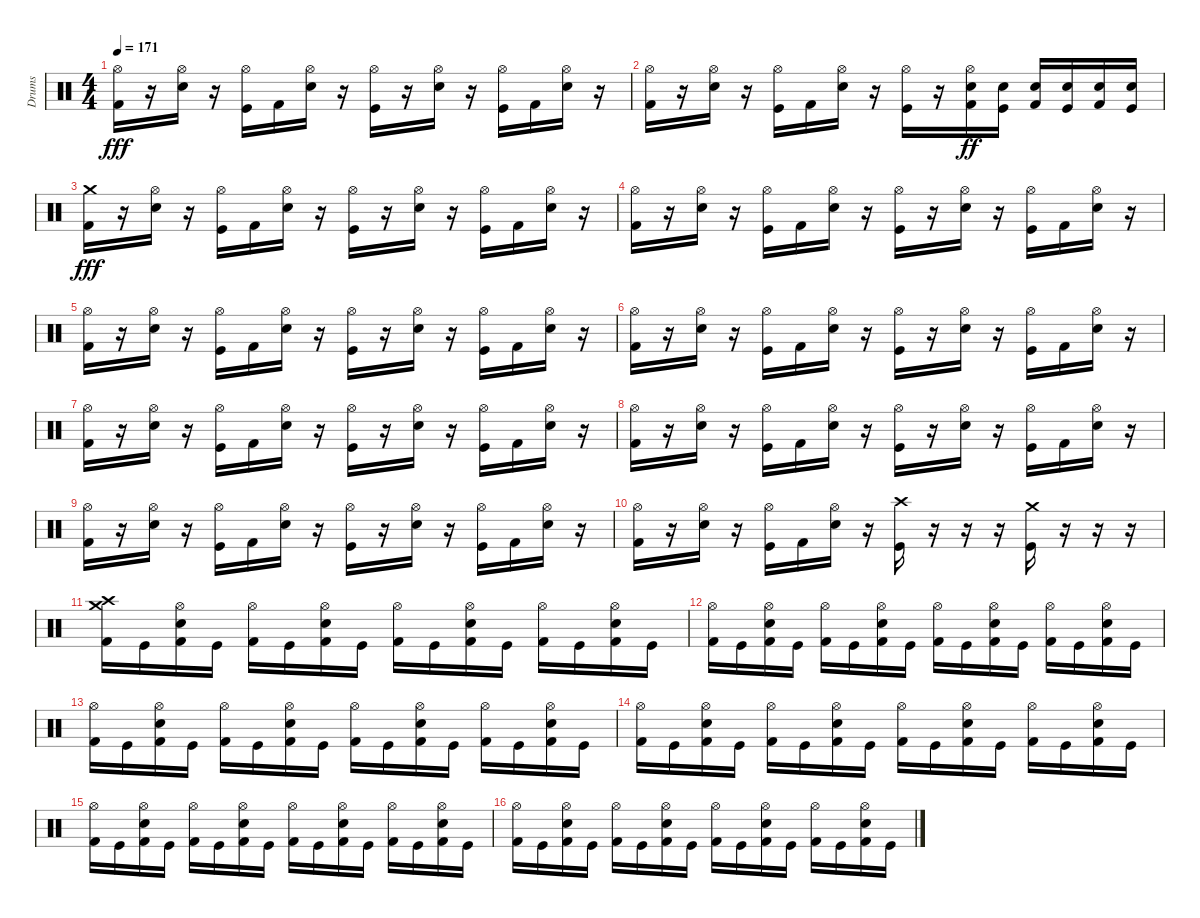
\track ("Drums" "Drums") {instrument percussion}
\staff {score}
\articulation defaults
\ts (4 4)
\tempo 171
\clef neutral
\ks c
("Hi-Hat (open)" "Kick (hit) 2").16{dy fff} r.16 ("Hi-Hat (open)" "Electric Snare (hit)").16 r.16 ("Hi-Hat (open)" "Kick (hit)").16 "Kick (hit) 2".16 ("Hi-Hat (open)" "Electric Snare (hit)").16 r.16 ("Hi-Hat (open)" "Kick (hit)").16 r.16 ("Hi-Hat (open)" "Electric Snare (hit)").16 r.16 ("Hi-Hat (open)" "Kick (hit)").16 "Kick (hit) 2".16 ("Hi-Hat (open)" "Electric Snare (hit)").16 r.16 |
("Hi-Hat (open)" "Kick (hit) 2").16 r.16 ("Hi-Hat (open)" "Electric Snare (hit)").16 r.16 ("Hi-Hat (open)" "Kick (hit)").16 "Kick (hit) 2".16 ("Hi-Hat (open)" "Electric Snare (hit)").16 r.16 ("Hi-Hat (open)" "Kick (hit)").16 r.16 ("Hi-Hat (open)" "Electric Snare (hit)" "Kick (hit) 2").16{dy ff} ("Electric Snare (hit)" "Kick (hit)").16 ("Electric Snare (hit)" "Kick (hit) 2").16 ("Electric Snare (hit)" "Kick (hit)").16 ("Electric Snare (hit)" "Kick (hit) 2").16 ("Electric Snare (hit)" "Kick (hit)").16 |
("Crash medium (hit)" "Kick (hit) 2").16{dy fff} r.16 ("Hi-Hat (open)" "Electric Snare (hit)").16 r.16 ("Hi-Hat (open)" "Kick (hit)").16 "Kick (hit) 2".16 ("Hi-Hat (open)" "Electric Snare (hit)").16 r.16 ("Hi-Hat (open)" "Kick (hit)").16 r.16 ("Hi-Hat (open)" "Electric Snare (hit)").16 r.16 ("Hi-Hat (open)" "Kick (hit)").16 "Kick (hit) 2".16 ("Hi-Hat (open)" "Electric Snare (hit)").16 r.16 |
("Hi-Hat (open)" "Kick (hit) 2").16 r.16 ("Hi-Hat (open)" "Electric Snare (hit)").16 r.16 ("Hi-Hat (open)" "Kick (hit)").16 "Kick (hit) 2".16 ("Hi-Hat (open)" "Electric Snare (hit)").16 r.16 ("Hi-Hat (open)" "Kick (hit)").16 r.16 ("Hi-Hat (open)" "Electric Snare (hit)").16 r.16 ("Hi-Hat (open)" "Kick (hit)").16 "Kick (hit) 2".16 ("Hi-Hat (open)" "Electric Snare (hit)").16 r.16 |
("Hi-Hat (open)" "Kick (hit) 2").16 r.16 ("Hi-Hat (open)" "Electric Snare (hit)").16 r.16 ("Hi-Hat (open)" "Kick (hit)").16 "Kick (hit) 2".16 ("Hi-Hat (open)" "Electric Snare (hit)").16 r.16 ("Hi-Hat (open)" "Kick (hit)").16 r.16 ("Hi-Hat (open)" "Electric Snare (hit)").16 r.16 ("Hi-Hat (open)" "Kick (hit)").16 "Kick (hit) 2".16 ("Hi-Hat (open)" "Electric Snare (hit)").16 r.16 |
("Hi-Hat (open)" "Kick (hit) 2").16 r.16 ("Hi-Hat (open)" "Electric Snare (hit)").16 r.16 ("Hi-Hat (open)" "Kick (hit)").16 "Kick (hit) 2".16 ("Hi-Hat (open)" "Electric Snare (hit)").16 r.16 ("Hi-Hat (open)" "Kick (hit)").16 r.16 ("Hi-Hat (open)" "Electric Snare (hit)").16 r.16 ("Hi-Hat (open)" "Kick (hit)").16 "Kick (hit) 2".16 ("Hi-Hat (open)" "Electric Snare (hit)").16 r.16 |
("Hi-Hat (open)" "Kick (hit) 2").16 r.16 ("Hi-Hat (open)" "Electric Snare (hit)").16 r.16 ("Hi-Hat (open)" "Kick (hit)").16 "Kick (hit) 2".16 ("Hi-Hat (open)" "Electric Snare (hit)").16 r.16 ("Hi-Hat (open)" "Kick (hit)").16 r.16 ("Hi-Hat (open)" "Electric Snare (hit)").16 r.16 ("Hi-Hat (open)" "Kick (hit)").16 "Kick (hit) 2".16 ("Hi-Hat (open)" "Electric Snare (hit)").16 r.16 |
("Hi-Hat (open)" "Kick (hit) 2").16 r.16 ("Hi-Hat (open)" "Electric Snare (hit)").16 r.16 ("Hi-Hat (open)" "Kick (hit)").16 "Kick (hit) 2".16 ("Hi-Hat (open)" "Electric Snare (hit)").16 r.16 ("Hi-Hat (open)" "Kick (hit)").16 r.16 ("Hi-Hat (open)" "Electric Snare (hit)").16 r.16 ("Hi-Hat (open)" "Kick (hit)").16 "Kick (hit) 2".16 ("Hi-Hat (open)" "Electric Snare (hit)").16 r.16 |
("Hi-Hat (open)" "Kick (hit) 2").16 r.16 ("Hi-Hat (open)" "Electric Snare (hit)").16 r.16 ("Hi-Hat (open)" "Kick (hit)").16 "Kick (hit) 2".16 ("Hi-Hat (open)" "Electric Snare (hit)").16 r.16 ("Hi-Hat (open)" "Kick (hit)").16 r.16 ("Hi-Hat (open)" "Electric Snare (hit)").16 r.16 ("Hi-Hat (open)" "Kick (hit)").16 "Kick (hit) 2".16 ("Hi-Hat (open)" "Electric Snare (hit)").16 r.16 |
("Hi-Hat (open)" "Kick (hit) 2").16 r.16 ("Hi-Hat (open)" "Electric Snare (hit)").16 r.16 ("Hi-Hat (open)" "Kick (hit)").16 "Kick (hit) 2".16 ("Hi-Hat (open)" "Electric Snare (hit)").16 r.16 ("Crash high (hit)" "Kick (hit)").16 r.16 r.16 r.16 ("Crash medium (hit)" "Kick (hit)").16 r.16 r.16 r.16 |
("Crash high (hit)" "Crash medium (hit)" "Kick (hit) 2").16 "Kick (hit)".16 ("Hi-Hat (open)" "Electric Snare (hit)" "Kick (hit) 2").16 "Kick (hit)".16 ("Hi-Hat (open)" "Kick (hit) 2").16 "Kick (hit)".16 ("Hi-Hat (open)" "Electric Snare (hit)" "Kick (hit) 2").16 "Kick (hit)".16 ("Hi-Hat (open)" "Kick (hit) 2").16 "Kick (hit)".16 ("Hi-Hat (open)" "Electric Snare (hit)" "Kick (hit) 2").16 "Kick (hit)".16 ("Hi-Hat (open)" "Kick (hit) 2").16 "Kick (hit)".16 ("Hi-Hat (open)" "Electric Snare (hit)" "Kick (hit) 2").16 "Kick (hit)".16 |
("Hi-Hat (open)" "Kick (hit) 2").16 "Kick (hit)".16 ("Hi-Hat (open)" "Electric Snare (hit)" "Kick (hit) 2").16 "Kick (hit)".16 ("Hi-Hat (open)" "Kick (hit) 2").16 "Kick (hit)".16 ("Hi-Hat (open)" "Electric Snare (hit)" "Kick (hit) 2").16 "Kick (hit)".16 ("Hi-Hat (open)" "Kick (hit) 2").16 "Kick (hit)".16 ("Hi-Hat (open)" "Electric Snare (hit)" "Kick (hit) 2").16 "Kick (hit)".16 ("Hi-Hat (open)" "Kick (hit) 2").16 "Kick (hit)".16 ("Hi-Hat (open)" "Electric Snare (hit)" "Kick (hit) 2").16 "Kick (hit)".16 |
("Hi-Hat (open)" "Kick (hit) 2").16 "Kick (hit)".16 ("Hi-Hat (open)" "Electric Snare (hit)" "Kick (hit) 2").16 "Kick (hit)".16 ("Hi-Hat (open)" "Kick (hit) 2").16 "Kick (hit)".16 ("Hi-Hat (open)" "Electric Snare (hit)" "Kick (hit) 2").16 "Kick (hit)".16 ("Hi-Hat (open)" "Kick (hit) 2").16 "Kick (hit)".16 ("Hi-Hat (open)" "Electric Snare (hit)" "Kick (hit) 2").16 "Kick (hit)".16 ("Hi-Hat (open)" "Kick (hit) 2").16 "Kick (hit)".16 ("Hi-Hat (open)" "Electric Snare (hit)" "Kick (hit) 2").16 "Kick (hit)".16 |
("Hi-Hat (open)" "Kick (hit) 2").16 "Kick (hit)".16 ("Hi-Hat (open)" "Electric Snare (hit)" "Kick (hit) 2").16 "Kick (hit)".16 ("Hi-Hat (open)" "Kick (hit) 2").16 "Kick (hit)".16 ("Hi-Hat (open)" "Electric Snare (hit)" "Kick (hit) 2").16 "Kick (hit)".16 ("Hi-Hat (open)" "Kick (hit) 2").16 "Kick (hit)".16 ("Hi-Hat (open)" "Electric Snare (hit)" "Kick (hit) 2").16 "Kick (hit)".16 ("Hi-Hat (open)" "Kick (hit) 2").16 "Kick (hit)".16 ("Hi-Hat (open)" "Electric Snare (hit)" "Kick (hit) 2").16 "Kick (hit)".16 |
("Hi-Hat (open)" "Kick (hit) 2").16 "Kick (hit)".16 ("Hi-Hat (open)" "Electric Snare (hit)" "Kick (hit) 2").16 "Kick (hit)".16 ("Hi-Hat (open)" "Kick (hit) 2").16 "Kick (hit)".16 ("Hi-Hat (open)" "Electric Snare (hit)" "Kick (hit) 2").16 "Kick (hit)".16 ("Hi-Hat (open)" "Kick (hit) 2").16 "Kick (hit)".16 ("Hi-Hat (open)" "Electric Snare (hit)" "Kick (hit) 2").16 "Kick (hit)".16 ("Hi-Hat (open)" "Kick (hit) 2").16 "Kick (hit)".16 ("Hi-Hat (open)" "Electric Snare (hit)" "Kick (hit) 2").16 "Kick (hit)".16 |
("Hi-Hat (open)" "Kick (hit) 2").16 "Kick (hit)".16 ("Hi-Hat (open)" "Electric Snare (hit)" "Kick (hit) 2").16 "Kick (hit)".16 ("Hi-Hat (open)" "Kick (hit) 2").16 "Kick (hit)".16 ("Hi-Hat (open)" "Electric Snare (hit)" "Kick (hit) 2").16 "Kick (hit)".16 ("Hi-Hat (open)" "Kick (hit) 2").16 "Kick (hit)".16 ("Hi-Hat (open)" "Electric Snare (hit)" "Kick (hit) 2").16 "Kick (hit)".16 ("Hi-Hat (open)" "Kick (hit) 2").16 "Kick (hit)".16 ("Hi-Hat (open)" "Electric Snare (hit)" "Kick (hit) 2").16 "Kick (hit)".16
